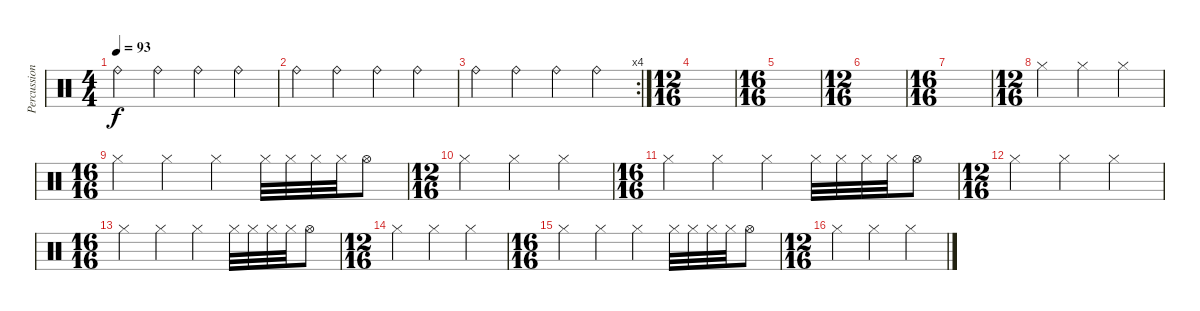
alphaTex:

\track ("Percussion" "Percussion") {instrument percussion}
\staff {score}
\articulation defaults
\ts (4 4)
\tempo 93
\clef neutral
\ks c "Ride (bell)".4{dy f} "Ride (bell)".4 "Ride (bell)".4 "Ride (bell)".4
|
"Ride (bell)".4 "Ride (bell)".4 "Ride (bell)".4 "Ride (bell)".4 |
\rc 4 "Ride (bell)".4 "Ride (bell)".4 "Ride (bell)".4 "Ride (bell)".4
|
\ts (12 16)
|
\ts (16 16)
|
\ts (12 16)
|
\ts (16 16)
|
\ts (12 16)
"Hi-Hat (closed)".4 "Hi-Hat (closed)".4 "Hi-Hat (closed)".4 |
\ts (16 16)
"Hi-Hat (closed)".4 "Hi-Hat (closed)".4 "Hi-Hat (closed)".4 "Hi-Hat (closed)".32 "Hi-Hat (closed)".32 "Hi-Hat (closed)".32 "Hi-Hat (closed)".32 "Hi-Hat (open)".8 |
\ts (12 16)
"Hi-Hat (closed)".4 "Hi-Hat (closed)".4 "Hi-Hat (closed)".4 |
\ts (16 16)
"Hi-Hat (closed)".4 "Hi-Hat (closed)".4 "Hi-Hat (closed)".4 "Hi-Hat (closed)".32 "Hi-Hat (closed)".32 "Hi-Hat (closed)".32 "Hi-Hat (closed)".32 "Hi-Hat (open)".8 |
\ts (12 16)
"Hi-Hat (closed)".4 "Hi-Hat (closed)".4 "Hi-Hat (closed)".4 |
\ts (16 16)
"Hi-Hat (closed)".4 "Hi-Hat (closed)".4 "Hi-Hat (closed)".4 "Hi-Hat (closed)".32 "Hi-Hat (closed)".32 "Hi-Hat (closed)".32 "Hi-Hat (closed)".32 "Hi-Hat (open)".8 |
\ts (12 16)
"Hi-Hat (closed)".4 "Hi-Hat (closed)".4 "Hi-Hat (closed)".4 |
\ts (16 16)
"Hi-Hat (closed)".4 "Hi-Hat (closed)".4 "Hi-Hat (closed)".4 "Hi-Hat (closed)".32 "Hi-Hat (closed)".32 "Hi-Hat (closed)".32 "Hi-Hat (closed)".32 "Hi-Hat (open)".8 |
\ts (12 16)
"Hi-Hat (closed)".4 "Hi-Hat (closed)".4 "Hi-Hat (closed)".4
